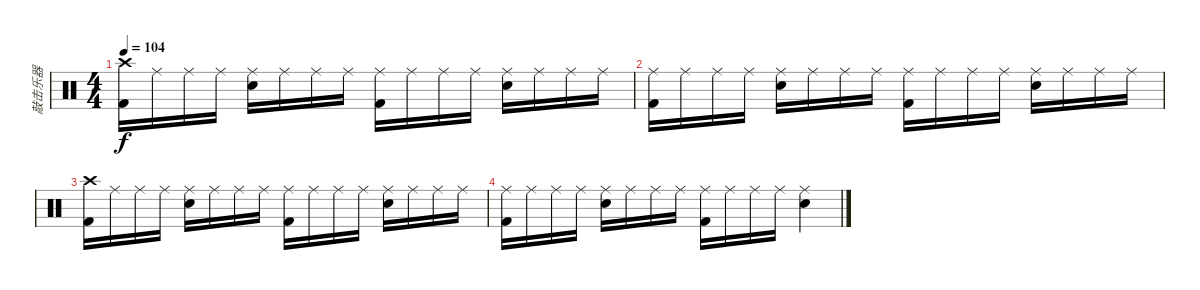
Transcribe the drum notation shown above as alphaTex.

\track ("敲击乐器" "敲击乐器") {instrument percussion}
\staff {score}
\articulation defaults
\ts (4 4)
\tempo 104
\clef neutral
\ks c
("Crash high (hit)" "Kick (hit) 2").16{dy f} "Ride (middle)".16 "Ride (middle)".16 "Ride (middle)".16 ("Ride (middle)" "Electric Snare (hit)").16 "Ride (middle)".16 "Ride (middle)".16 "Ride (middle)".16 ("Ride (middle)" "Kick (hit) 2").16 "Ride (middle)".16 "Ride (middle)".16 "Ride (middle)".16 ("Ride (middle)" "Electric Snare (hit)").16 "Ride (middle)".16 "Ride (middle)".16 "Ride (middle)".16 |
("Ride (middle)" "Kick (hit) 2").16 "Ride (middle)".16 "Ride (middle)".16 "Ride (middle)".16 ("Ride (middle)" "Electric Snare (hit)").16 "Ride (middle)".16 "Ride (middle)".16 "Ride (middle)".16 ("Ride (middle)" "Kick (hit) 2").16 "Ride (middle)".16 "Ride (middle)".16 "Ride (middle)".16 ("Ride (middle)" "Electric Snare (hit)").16 "Ride (middle)".16 "Ride (middle)".16 "Ride (middle)".16 |
("Crash high (hit)" "Kick (hit) 2").16 "Ride (middle)".16 "Ride (middle)".16 "Ride (middle)".16 ("Ride (middle)" "Electric Snare (hit)").16 "Ride (middle)".16 "Ride (middle)".16 "Ride (middle)".16 ("Ride (middle)" "Kick (hit) 2").16 "Ride (middle)".16 "Ride (middle)".16 "Ride (middle)".16 ("Ride (middle)" "Electric Snare (hit)").16 "Ride (middle)".16 "Ride (middle)".16 "Ride (middle)".16 |
("Ride (middle)" "Kick (hit) 2").16 "Ride (middle)".16 "Ride (middle)".16 "Ride (middle)".16 ("Ride (middle)" "Electric Snare (hit)").16 "Ride (middle)".16 "Ride (middle)".16 "Ride (middle)".16 ("Ride (middle)" "Kick (hit) 2").16 "Ride (middle)".16 "Ride (middle)".16 "Ride (middle)".16 ("Ride (middle)" "Electric Snare (hit)").4
